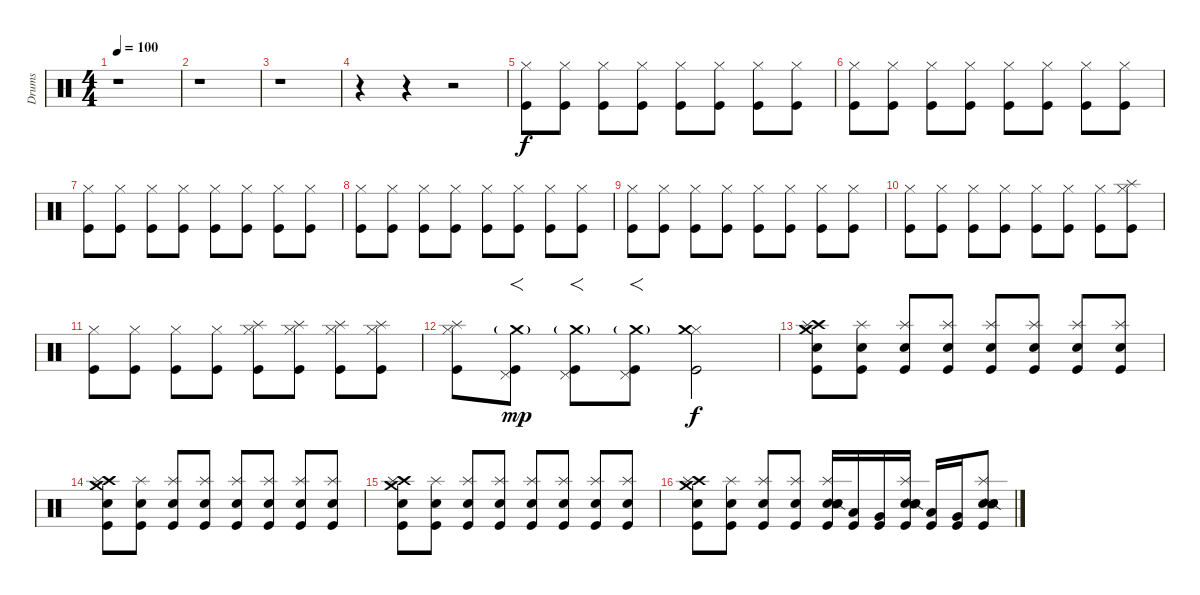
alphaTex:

\track ("Drums" "Drums") {instrument percussion}
\staff {score}
\articulation defaults
\ts (4 4)
\tempo 100
\clef neutral
\ks c
r.1{dy f} |
r.1 |
r.1 |
r.4 r.4 r.2 |
("Kick (hit)" "Hi-Hat (closed)").8 ("Kick (hit)" "Hi-Hat (closed)").8 ("Kick (hit)" "Hi-Hat (closed)").8 ("Kick (hit)" "Hi-Hat (closed)").8 ("Kick (hit)" "Hi-Hat (closed)").8 ("Kick (hit)" "Hi-Hat (closed)").8 ("Kick (hit)" "Hi-Hat (closed)").8 ("Kick (hit)" "Hi-Hat (closed)").8 |
("Kick (hit)" "Hi-Hat (closed)").8 ("Kick (hit)" "Hi-Hat (closed)").8 ("Kick (hit)" "Hi-Hat (closed)").8 ("Kick (hit)" "Hi-Hat (closed)").8 ("Kick (hit)" "Hi-Hat (closed)").8 ("Kick (hit)" "Hi-Hat (closed)").8 ("Kick (hit)" "Hi-Hat (closed)").8 ("Kick (hit)" "Hi-Hat (closed)").8 |
("Kick (hit)" "Hi-Hat (closed)").8 ("Kick (hit)" "Hi-Hat (closed)").8 ("Kick (hit)" "Hi-Hat (closed)").8 ("Kick (hit)" "Hi-Hat (closed)").8 ("Kick (hit)" "Hi-Hat (closed)").8 ("Kick (hit)" "Hi-Hat (closed)").8 ("Kick (hit)" "Hi-Hat (closed)").8 ("Kick (hit)" "Hi-Hat (closed)").8 |
("Kick (hit)" "Hi-Hat (closed)").8 ("Kick (hit)" "Hi-Hat (closed)").8 ("Kick (hit)" "Hi-Hat (closed)").8 ("Kick (hit)" "Hi-Hat (closed)").8 ("Kick (hit)" "Hi-Hat (closed)").8 ("Kick (hit)" "Hi-Hat (closed)").8 ("Kick (hit)" "Hi-Hat (closed)").8 ("Kick (hit)" "Hi-Hat (closed)").8 |
("Kick (hit)" "Hi-Hat (closed)").8 ("Kick (hit)" "Hi-Hat (closed)").8 ("Kick (hit)" "Hi-Hat (closed)").8 ("Kick (hit)" "Hi-Hat (closed)").8 ("Kick (hit)" "Hi-Hat (closed)").8 ("Kick (hit)" "Hi-Hat (closed)").8 ("Kick (hit)" "Hi-Hat (closed)").8 ("Kick (hit)" "Hi-Hat (closed)").8 |
("Kick (hit)" "Hi-Hat (closed)").8 ("Kick (hit)" "Hi-Hat (closed)").8 ("Kick (hit)" "Hi-Hat (closed)").8 ("Kick (hit)" "Hi-Hat (closed)").8 ("Kick (hit)" "Hi-Hat (closed)").8 ("Kick (hit)" "Hi-Hat (closed)").8 ("Kick (hit)" "Hi-Hat (closed)").8 ("Kick (hit)" "Hi-Hat (closed)" "Splash (hit)").8 |
("Kick (hit)" "Hi-Hat (closed)").8 ("Kick (hit)" "Hi-Hat (closed)").8 ("Kick (hit)" "Hi-Hat (closed)").8 ("Kick (hit)" "Hi-Hat (closed)").8 ("Kick (hit)" "Hi-Hat (closed)" "Splash (hit)").8 ("Kick (hit)" "Hi-Hat (closed)" "Splash (hit)").8 ("Kick (hit)" "Hi-Hat (closed)" "Splash (hit)").8 ("Kick (hit)" "Hi-Hat (closed)" "Splash (hit)").8 |
("Kick (hit)" "Hi-Hat (closed)" "Splash (hit)").8 ("Kick (hit)" "Pedal Hi-Hat (hit)" "Crash medium (hit)"{g}).8{f dy mp} ("Kick (hit)" "Pedal Hi-Hat (hit)" "Crash medium (hit)"{g}).8{f} ("Kick (hit)" "Pedal Hi-Hat (hit)" "Crash medium (hit)"{g}).8{f} ("Kick (hit)" "Hi-Hat (closed)" "Crash medium (hit)").2{dy f} |
("Electric Snare (hit)" "Kick (hit)" "Crash high (hit)" "Splash (hit)" "Crash medium (hit)").8{volume 14} ("Electric Snare (hit)" "Kick (hit)" "Splash (hit)").8 ("Electric Snare (hit)" "Kick (hit)" "Splash (hit)").8 ("Electric Snare (hit)" "Kick (hit)" "Splash (hit)").8 ("Electric Snare (hit)" "Kick (hit)" "Splash (hit)").8 ("Electric Snare (hit)" "Kick (hit)" "Splash (hit)").8 ("Electric Snare (hit)" "Kick (hit)" "Splash (hit)").8 ("Electric Snare (hit)" "Kick (hit)" "Splash (hit)").8 |
("Electric Snare (hit)" "Kick (hit)" "Crash high (hit)" "Splash (hit)" "Crash medium (hit)").8 ("Electric Snare (hit)" "Kick (hit)" "Splash (hit)").8 ("Electric Snare (hit)" "Kick (hit)" "Splash (hit)").8 ("Electric Snare (hit)" "Kick (hit)" "Splash (hit)").8 ("Electric Snare (hit)" "Kick (hit)" "Splash (hit)").8 ("Electric Snare (hit)" "Kick (hit)" "Splash (hit)").8 ("Electric Snare (hit)" "Kick (hit)" "Splash (hit)").8 ("Electric Snare (hit)" "Kick (hit)" "Splash (hit)").8 |
("Electric Snare (hit)" "Kick (hit)" "Crash high (hit)" "Splash (hit)" "Crash medium (hit)").8 ("Electric Snare (hit)" "Kick (hit)" "Splash (hit)").8 ("Electric Snare (hit)" "Kick (hit)" "Splash (hit)").8 ("Electric Snare (hit)" "Kick (hit)" "Splash (hit)").8 ("Electric Snare (hit)" "Kick (hit)" "Splash (hit)").8 ("Electric Snare (hit)" "Kick (hit)" "Splash (hit)").8 ("Electric Snare (hit)" "Kick (hit)" "Splash (hit)").8 ("Electric Snare (hit)" "Kick (hit)" "Splash (hit)").8 |
("Electric Snare (hit)" "Kick (hit)" "Crash high (hit)" "Splash (hit)" "Crash medium (hit)").8 ("Electric Snare (hit)" "Kick (hit)" "Splash (hit)").8 ("Electric Snare (hit)" "Kick (hit)" "Splash (hit)").8 ("Electric Snare (hit)" "Kick (hit)" "Splash (hit)").8 ("Electric Snare (hit)" "Electric Snare (hit)" "Snare (side stick) 2" "Kick (hit)" "Splash (hit)").16 ("Low Tom (hit)" "Kick (hit)").16 ("Very Low Tom (hit)" "Kick (hit)").16 ("Electric Snare (hit)" "Electric Snare (hit)" "Snare (side stick) 2" "Kick (hit)" "Splash (hit)").16 ("Low Tom (hit)" "Kick (hit)").16 ("Very Low Tom (hit)" "Kick (hit)").16 ("Electric Snare (hit)" "Electric Snare (hit)" "Snare (side stick) 2" "Kick (hit)" "Splash (hit)").8
